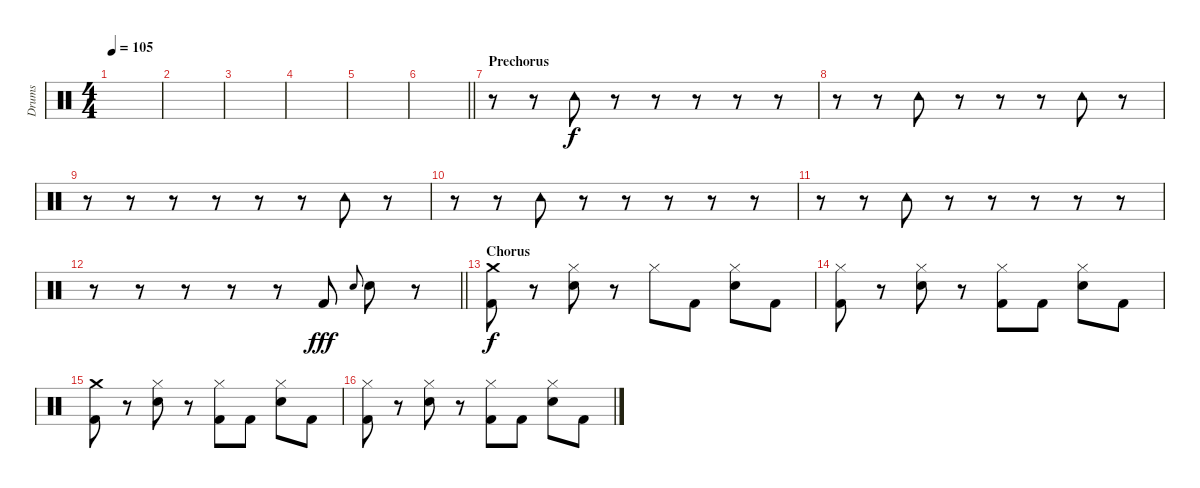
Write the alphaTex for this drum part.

\track ("Drums" "Drums") {instrument percussion}
\staff {score}
\articulation defaults
\ts (4 4)
\tempo 105
\clef neutral
\ks c
|
|
|
|
|
\barLineRight lightlight
|
\section ("" "Prechorus")
r.8 r.8 "Tambourine (hit)".8 r.8 r.8 r.8 r.8 r.8 |
r.8 r.8 "Tambourine (hit)".8 r.8 r.8 r.8 "Tambourine (hit)".8 r.8 |
r.8 r.8 r.8 r.8 r.8 r.8 "Tambourine (hit)".8 r.8 |
r.8 r.8 "Tambourine (hit)".8 r.8 r.8 r.8 r.8 r.8 |
r.8 r.8 "Tambourine (hit)".8 r.8 r.8 r.8 r.8 r.8 |
\barLineRight lightlight
r.8 r.8 r.8 r.8 r.8 "Kick (hit) 2".8{dy fff} "Snare (hit) 2".8{gr onbeat} "Snare (hit) 2".8 r.8 |
\section ("" "Chorus")
("Crash medium (hit)" "Kick (hit) 2").8{dy f} r.8 ("Hi-Hat (closed)" "Snare (hit) 2").8 r.8 "Hi-Hat (closed)".8 "Kick (hit) 2".8 ("Hi-Hat (closed)" "Snare (hit) 2").8 "Kick (hit) 2".8 |
("Hi-Hat (closed)" "Kick (hit) 2").8 r.8 ("Hi-Hat (closed)" "Snare (hit) 2").8 r.8 ("Hi-Hat (closed)" "Kick (hit) 2").8 "Kick (hit) 2".8 ("Hi-Hat (closed)" "Snare (hit) 2").8 "Kick (hit) 2".8 |
("Crash medium (hit)" "Kick (hit) 2").8 r.8 ("Hi-Hat (closed)" "Snare (hit) 2").8 r.8 ("Hi-Hat (closed)" "Kick (hit) 2").8 "Kick (hit) 2".8 ("Hi-Hat (closed)" "Snare (hit) 2").8 "Kick (hit) 2".8 |
("Hi-Hat (closed)" "Kick (hit) 2").8 r.8 ("Hi-Hat (closed)" "Snare (hit) 2").8 r.8 ("Hi-Hat (closed)" "Kick (hit) 2").8 "Kick (hit) 2".8 ("Hi-Hat (closed)" "Snare (hit) 2").8 "Kick (hit) 2".8
